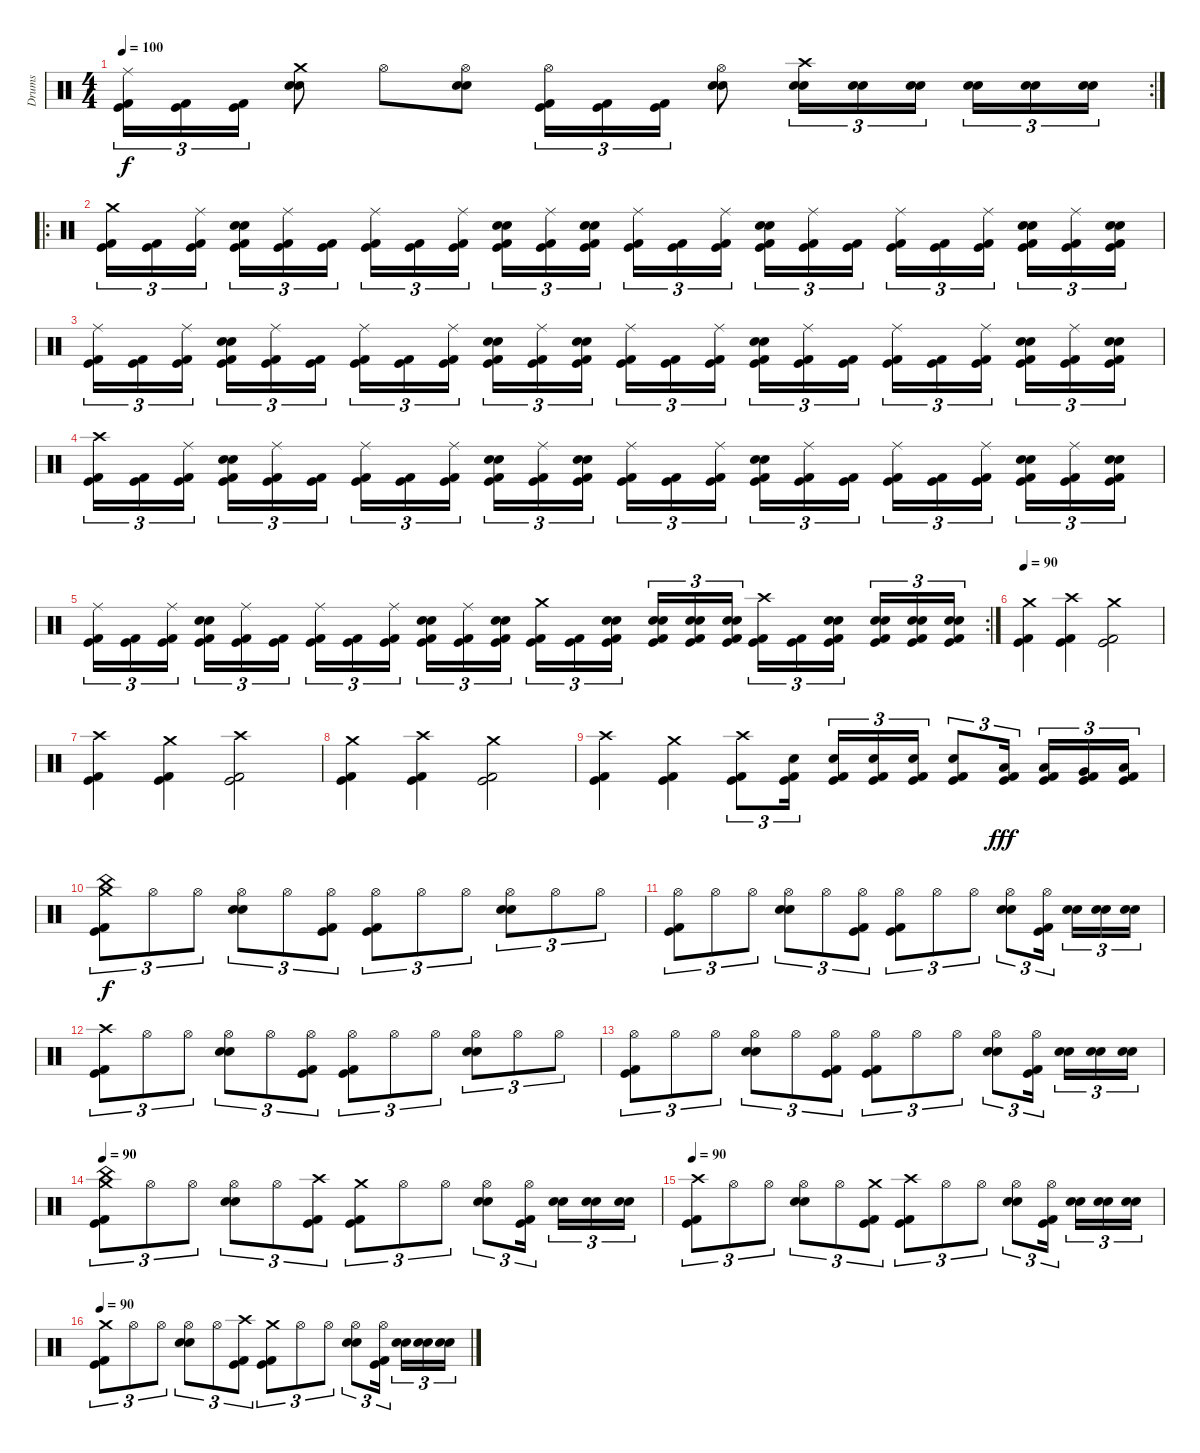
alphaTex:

\track ("Drums" "Drums") {instrument percussion}
\staff {score}
\articulation defaults
\rc 2
\ts (4 4)
\tempo 100
\clef neutral
\ks c
("Ride (middle)" "Kick (hit)" "Kick (hit) 2").16{tu (3 2) dy f} ("Kick (hit)" "Kick (hit) 2").16{tu (3 2)} ("Kick (hit)" "Kick (hit) 2").16{tu (3 2)} ("Crash medium (hit)" "Electric Snare (hit)" "Snare (hit) 2").8 "Hi-Hat (open)".8 ("Hi-Hat (open)" "Electric Snare (hit)" "Snare (hit) 2").8 ("Hi-Hat (open)" "Kick (hit)" "Kick (hit) 2").16{tu (3 2)} ("Kick (hit)" "Kick (hit) 2").16{tu (3 2)} ("Kick (hit)" "Kick (hit) 2").16{tu (3 2)} ("Hi-Hat (open)" "Electric Snare (hit)" "Snare (hit) 2").8 ("Crash high (hit)" "Electric Snare (hit)" "Snare (hit) 2").16{tu (3 2)} ("Electric Snare (hit)" "Snare (hit) 2").16{tu (3 2)} ("Electric Snare (hit)" "Snare (hit) 2").16{tu (3 2) beam splitsecondary} ("Electric Snare (hit)" "Snare (hit) 2").16{tu (3 2)} ("Electric Snare (hit)" "Snare (hit) 2").16{tu (3 2)} ("Electric Snare (hit)" "Snare (hit) 2").16{tu (3 2)} |
\ro
("Crash medium (hit)" "Kick (hit)" "Kick (hit) 2").16{tu (3 2)} ("Kick (hit)" "Kick (hit) 2").16{tu (3 2)} ("Ride (middle)" "Kick (hit)" "Kick (hit) 2").16{tu (3 2) beam splitsecondary} ("Electric Snare (hit)" "Snare (hit) 2" "Kick (hit)" "Kick (hit) 2").16{tu (3 2)} ("Ride (middle)" "Kick (hit)" "Kick (hit) 2").16{tu (3 2)} ("Kick (hit)" "Kick (hit) 2").16{tu (3 2)} ("Ride (middle)" "Kick (hit)" "Kick (hit) 2").16{tu (3 2)} ("Kick (hit)" "Kick (hit) 2").16{tu (3 2)} ("Ride (middle)" "Kick (hit)" "Kick (hit) 2").16{tu (3 2) beam splitsecondary} ("Electric Snare (hit)" "Snare (hit) 2" "Kick (hit)" "Kick (hit) 2").16{tu (3 2)} ("Ride (middle)" "Kick (hit)" "Kick (hit) 2").16{tu (3 2)} ("Electric Snare (hit)" "Snare (hit) 2" "Kick (hit)" "Kick (hit) 2").16{tu (3 2)} ("Ride (middle)" "Kick (hit)" "Kick (hit) 2").16{tu (3 2)} ("Kick (hit)" "Kick (hit) 2").16{tu (3 2)} ("Ride (middle)" "Kick (hit)" "Kick (hit) 2").16{tu (3 2) beam splitsecondary} ("Electric Snare (hit)" "Snare (hit) 2" "Kick (hit)" "Kick (hit) 2").16{tu (3 2)} ("Ride (middle)" "Kick (hit)" "Kick (hit) 2").16{tu (3 2)} ("Kick (hit)" "Kick (hit) 2").16{tu (3 2)} ("Ride (middle)" "Kick (hit)" "Kick (hit) 2").16{tu (3 2)} ("Kick (hit)" "Kick (hit) 2").16{tu (3 2)} ("Ride (middle)" "Kick (hit)" "Kick (hit) 2").16{tu (3 2) beam splitsecondary} ("Electric Snare (hit)" "Snare (hit) 2" "Kick (hit)" "Kick (hit) 2").16{tu (3 2)} ("Ride (middle)" "Kick (hit)" "Kick (hit) 2").16{tu (3 2)} ("Electric Snare (hit)" "Snare (hit) 2" "Kick (hit)" "Kick (hit) 2").16{tu (3 2)} |
("Ride (middle)" "Kick (hit)" "Kick (hit) 2").16{tu (3 2)} ("Kick (hit)" "Kick (hit) 2").16{tu (3 2)} ("Ride (middle)" "Kick (hit)" "Kick (hit) 2").16{tu (3 2) beam splitsecondary} ("Electric Snare (hit)" "Snare (hit) 2" "Kick (hit)" "Kick (hit) 2").16{tu (3 2)} ("Ride (middle)" "Kick (hit)" "Kick (hit) 2").16{tu (3 2)} ("Kick (hit)" "Kick (hit) 2").16{tu (3 2)} ("Ride (middle)" "Kick (hit)" "Kick (hit) 2").16{tu (3 2)} ("Kick (hit)" "Kick (hit) 2").16{tu (3 2)} ("Ride (middle)" "Kick (hit)" "Kick (hit) 2").16{tu (3 2) beam splitsecondary} ("Electric Snare (hit)" "Snare (hit) 2" "Kick (hit)" "Kick (hit) 2").16{tu (3 2)} ("Ride (middle)" "Kick (hit)" "Kick (hit) 2").16{tu (3 2)} ("Electric Snare (hit)" "Snare (hit) 2" "Kick (hit)" "Kick (hit) 2").16{tu (3 2)} ("Ride (middle)" "Kick (hit)" "Kick (hit) 2").16{tu (3 2)} ("Kick (hit)" "Kick (hit) 2").16{tu (3 2)} ("Ride (middle)" "Kick (hit)" "Kick (hit) 2").16{tu (3 2) beam splitsecondary} ("Electric Snare (hit)" "Snare (hit) 2" "Kick (hit)" "Kick (hit) 2").16{tu (3 2)} ("Ride (middle)" "Kick (hit)" "Kick (hit) 2").16{tu (3 2)} ("Kick (hit)" "Kick (hit) 2").16{tu (3 2)} ("Ride (middle)" "Kick (hit)" "Kick (hit) 2").16{tu (3 2)} ("Kick (hit)" "Kick (hit) 2").16{tu (3 2)} ("Ride (middle)" "Kick (hit)" "Kick (hit) 2").16{tu (3 2) beam splitsecondary} ("Electric Snare (hit)" "Snare (hit) 2" "Kick (hit)" "Kick (hit) 2").16{tu (3 2)} ("Ride (middle)" "Kick (hit)" "Kick (hit) 2").16{tu (3 2)} ("Electric Snare (hit)" "Snare (hit) 2" "Kick (hit)" "Kick (hit) 2").16{tu (3 2)} |
("Crash high (hit)" "Kick (hit)" "Kick (hit) 2").16{tu (3 2)} ("Kick (hit)" "Kick (hit) 2").16{tu (3 2)} ("Ride (middle)" "Kick (hit)" "Kick (hit) 2").16{tu (3 2) beam splitsecondary} ("Electric Snare (hit)" "Snare (hit) 2" "Kick (hit)" "Kick (hit) 2").16{tu (3 2)} ("Ride (middle)" "Kick (hit)" "Kick (hit) 2").16{tu (3 2)} ("Kick (hit)" "Kick (hit) 2").16{tu (3 2)} ("Ride (middle)" "Kick (hit)" "Kick (hit) 2").16{tu (3 2)} ("Kick (hit)" "Kick (hit) 2").16{tu (3 2)} ("Ride (middle)" "Kick (hit)" "Kick (hit) 2").16{tu (3 2) beam splitsecondary} ("Electric Snare (hit)" "Snare (hit) 2" "Kick (hit)" "Kick (hit) 2").16{tu (3 2)} ("Ride (middle)" "Kick (hit)" "Kick (hit) 2").16{tu (3 2)} ("Electric Snare (hit)" "Snare (hit) 2" "Kick (hit)" "Kick (hit) 2").16{tu (3 2)} ("Ride (middle)" "Kick (hit)" "Kick (hit) 2").16{tu (3 2)} ("Kick (hit)" "Kick (hit) 2").16{tu (3 2)} ("Ride (middle)" "Kick (hit)" "Kick (hit) 2").16{tu (3 2) beam splitsecondary} ("Electric Snare (hit)" "Snare (hit) 2" "Kick (hit)" "Kick (hit) 2").16{tu (3 2)} ("Ride (middle)" "Kick (hit)" "Kick (hit) 2").16{tu (3 2)} ("Kick (hit)" "Kick (hit) 2").16{tu (3 2)} ("Ride (middle)" "Kick (hit)" "Kick (hit) 2").16{tu (3 2)} ("Kick (hit)" "Kick (hit) 2").16{tu (3 2)} ("Ride (middle)" "Kick (hit)" "Kick (hit) 2").16{tu (3 2) beam splitsecondary} ("Electric Snare (hit)" "Snare (hit) 2" "Kick (hit)" "Kick (hit) 2").16{tu (3 2)} ("Ride (middle)" "Kick (hit)" "Kick (hit) 2").16{tu (3 2)} ("Electric Snare (hit)" "Snare (hit) 2" "Kick (hit)" "Kick (hit) 2").16{tu (3 2)} |
\rc 2
("Ride (middle)" "Kick (hit)" "Kick (hit) 2").16{tu (3 2)} ("Kick (hit)" "Kick (hit) 2").16{tu (3 2)} ("Ride (middle)" "Kick (hit)" "Kick (hit) 2").16{tu (3 2) beam splitsecondary} ("Electric Snare (hit)" "Snare (hit) 2" "Kick (hit)" "Kick (hit) 2").16{tu (3 2)} ("Ride (middle)" "Kick (hit)" "Kick (hit) 2").16{tu (3 2)} ("Kick (hit)" "Kick (hit) 2").16{tu (3 2)} ("Ride (middle)" "Kick (hit)" "Kick (hit) 2").16{tu (3 2)} ("Kick (hit)" "Kick (hit) 2").16{tu (3 2)} ("Ride (middle)" "Kick (hit)" "Kick (hit) 2").16{tu (3 2) beam splitsecondary} ("Electric Snare (hit)" "Snare (hit) 2" "Kick (hit)" "Kick (hit) 2").16{tu (3 2)} ("Ride (middle)" "Kick (hit)" "Kick (hit) 2").16{tu (3 2)} ("Electric Snare (hit)" "Snare (hit) 2" "Kick (hit)" "Kick (hit) 2").16{tu (3 2)} ("Crash medium (hit)" "Kick (hit)" "Kick (hit) 2").16{tu (3 2)} ("Kick (hit)" "Kick (hit) 2").16{tu (3 2)} ("Electric Snare (hit)" "Snare (hit) 2" "Kick (hit)" "Kick (hit) 2").16{tu (3 2) beam splitsecondary} ("Electric Snare (hit)" "Snare (hit) 2" "Kick (hit)" "Kick (hit) 2").16{tu (3 2)} ("Electric Snare (hit)" "Snare (hit) 2" "Kick (hit)" "Kick (hit) 2").16{tu (3 2)} ("Electric Snare (hit)" "Snare (hit) 2" "Kick (hit)" "Kick (hit) 2").16{tu (3 2)} ("Crash high (hit)" "Kick (hit)" "Kick (hit) 2").16{tu (3 2)} ("Kick (hit)" "Kick (hit) 2").16{tu (3 2)} ("Electric Snare (hit)" "Snare (hit) 2" "Kick (hit)" "Kick (hit) 2").16{tu (3 2) beam splitsecondary} ("Electric Snare (hit)" "Snare (hit) 2" "Kick (hit)" "Kick (hit) 2").16{tu (3 2)} ("Electric Snare (hit)" "Snare (hit) 2" "Kick (hit)" "Kick (hit) 2").16{tu (3 2)} ("Electric Snare (hit)" "Snare (hit) 2" "Kick (hit)" "Kick (hit) 2").16{tu (3 2)} |
\tempo 90
("Crash medium (hit)" "Kick (hit)" "Kick (hit) 2").4 ("Crash high (hit)" "Kick (hit)" "Kick (hit) 2").4 ("Crash medium (hit)" "Kick (hit)" "Kick (hit) 2").2 |
("Crash high (hit)" "Kick (hit)" "Kick (hit) 2").4 ("Crash medium (hit)" "Kick (hit)" "Kick (hit) 2").4 ("Crash high (hit)" "Kick (hit)" "Kick (hit) 2").2 |
("Crash medium (hit)" "Kick (hit)" "Kick (hit) 2").4 ("Crash high (hit)" "Kick (hit)" "Kick (hit) 2").4 ("Crash medium (hit)" "Kick (hit)" "Kick (hit) 2").2 |
("Crash high (hit)" "Kick (hit)" "Kick (hit) 2").4 ("Crash medium (hit)" "Kick (hit)" "Kick (hit) 2").4 ("Crash high (hit)" "Kick (hit)" "Kick (hit) 2").8{tu (3 2)} ("Electric Snare (hit)" "Kick (hit) 2" "Kick (hit)").16{tu (3 2) beam splitsecondary} ("Electric Snare (hit)" "Kick (hit) 2" "Kick (hit)").16{tu (3 2)} ("Electric Snare (hit)" "Kick (hit) 2" "Kick (hit)").16{tu (3 2)} ("Electric Snare (hit)" "Kick (hit) 2" "Kick (hit)").16{tu (3 2)} ("Electric Snare (hit)" "Kick (hit) 2" "Kick (hit)").8{tu (3 2)} ("Low Tom (hit)" "Kick (hit) 2" "Kick (hit)").16{tu (3 2) dy fff beam splitsecondary} ("Low Tom (hit)" "Kick (hit) 2" "Kick (hit)").16{tu (3 2)} ("Very Low Tom (hit)" "Kick (hit) 2" "Kick (hit)").16{tu (3 2)} ("Low Floor Tom (hit)" "Kick (hit) 2" "Kick (hit)").16{tu (3 2)} |
("China (hit)" "Crash medium (hit)" "Kick (hit)" "Kick (hit) 2").8{tu (3 2) dy f} "Hi-Hat (open)".8{tu (3 2)} "Hi-Hat (open)".8{tu (3 2)} ("Hi-Hat (open)" "Electric Snare (hit)" "Snare (hit) 2").8{tu (3 2)} "Hi-Hat (open)".8{tu (3 2)} ("Hi-Hat (open)" "Kick (hit)" "Kick (hit) 2").8{tu (3 2)} ("Hi-Hat (open)" "Kick (hit)" "Kick (hit) 2").8{tu (3 2)} "Hi-Hat (open)".8{tu (3 2)} "Hi-Hat (open)".8{tu (3 2)} ("Hi-Hat (open)" "Electric Snare (hit)" "Snare (hit) 2").8{tu (3 2)} "Hi-Hat (open)".8{tu (3 2)} "Hi-Hat (open)".8{tu (3 2)} |
("Hi-Hat (open)" "Kick (hit)" "Kick (hit) 2").8{tu (3 2)} "Hi-Hat (open)".8{tu (3 2)} "Hi-Hat (open)".8{tu (3 2)} ("Hi-Hat (open)" "Electric Snare (hit)" "Snare (hit) 2").8{tu (3 2)} "Hi-Hat (open)".8{tu (3 2)} ("Hi-Hat (open)" "Kick (hit)" "Kick (hit) 2").8{tu (3 2)} ("Hi-Hat (open)" "Kick (hit)" "Kick (hit) 2").8{tu (3 2)} "Hi-Hat (open)".8{tu (3 2)} "Hi-Hat (open)".8{tu (3 2)} ("Hi-Hat (open)" "Electric Snare (hit)" "Snare (hit) 2").8{tu (3 2)} ("Hi-Hat (open)" "Kick (hit)" "Kick (hit) 2").16{tu (3 2) beam splitsecondary} ("Snare (hit) 2" "Electric Snare (hit)").16{tu (3 2)} ("Snare (hit) 2" "Electric Snare (hit)").16{tu (3 2)} ("Snare (hit) 2" "Electric Snare (hit)").16{tu (3 2)} |
("Crash high (hit)" "Kick (hit)" "Kick (hit) 2").8{tu (3 2)} "Hi-Hat (open)".8{tu (3 2)} "Hi-Hat (open)".8{tu (3 2)} ("Hi-Hat (open)" "Electric Snare (hit)" "Snare (hit) 2").8{tu (3 2)} "Hi-Hat (open)".8{tu (3 2)} ("Hi-Hat (open)" "Kick (hit)" "Kick (hit) 2").8{tu (3 2)} ("Hi-Hat (open)" "Kick (hit)" "Kick (hit) 2").8{tu (3 2)} "Hi-Hat (open)".8{tu (3 2)} "Hi-Hat (open)".8{tu (3 2)} ("Hi-Hat (open)" "Electric Snare (hit)" "Snare (hit) 2").8{tu (3 2)} "Hi-Hat (open)".8{tu (3 2)} "Hi-Hat (open)".8{tu (3 2)} |
("Hi-Hat (open)" "Kick (hit)" "Kick (hit) 2").8{tu (3 2)} "Hi-Hat (open)".8{tu (3 2)} "Hi-Hat (open)".8{tu (3 2)} ("Hi-Hat (open)" "Electric Snare (hit)" "Snare (hit) 2").8{tu (3 2)} "Hi-Hat (open)".8{tu (3 2)} ("Hi-Hat (open)" "Kick (hit)" "Kick (hit) 2").8{tu (3 2)} ("Hi-Hat (open)" "Kick (hit)" "Kick (hit) 2").8{tu (3 2)} "Hi-Hat (open)".8{tu (3 2)} "Hi-Hat (open)".8{tu (3 2)} ("Hi-Hat (open)" "Electric Snare (hit)" "Snare (hit) 2").8{tu (3 2)} ("Hi-Hat (open)" "Kick (hit)" "Kick (hit) 2").16{tu (3 2) beam splitsecondary} ("Snare (hit) 2" "Electric Snare (hit)").16{tu (3 2)} ("Snare (hit) 2" "Electric Snare (hit)").16{tu (3 2)} ("Snare (hit) 2" "Electric Snare (hit)").16{tu (3 2)} |
\tempo 90
("China (hit)" "Crash medium (hit)" "Kick (hit)" "Kick (hit) 2").8{tu (3 2)} "Hi-Hat (open)".8{tu (3 2)} "Hi-Hat (open)".8{tu (3 2)} ("Hi-Hat (open)" "Electric Snare (hit)" "Snare (hit) 2").8{tu (3 2)} "Hi-Hat (open)".8{tu (3 2)} ("Crash high (hit)" "Kick (hit)" "Kick (hit) 2").8{tu (3 2)} ("Crash medium (hit)" "Kick (hit)" "Kick (hit) 2").8{tu (3 2)} "Hi-Hat (open)".8{tu (3 2)} "Hi-Hat (open)".8{tu (3 2)} ("Hi-Hat (open)" "Electric Snare (hit)" "Snare (hit) 2").8{tu (3 2)} ("Hi-Hat (open)" "Kick (hit)" "Kick (hit) 2").16{tu (3 2) beam splitsecondary} ("Snare (hit) 2" "Electric Snare (hit)").16{tu (3 2)} ("Snare (hit) 2" "Electric Snare (hit)").16{tu (3 2)} ("Snare (hit) 2" "Electric Snare (hit)").16{tu (3 2)} |
\tempo 90
("Crash high (hit)" "Kick (hit)" "Kick (hit) 2").8{tu (3 2)} "Hi-Hat (open)".8{tu (3 2)} "Hi-Hat (open)".8{tu (3 2)} ("Hi-Hat (open)" "Electric Snare (hit)" "Snare (hit) 2").8{tu (3 2)} "Hi-Hat (open)".8{tu (3 2)} ("Crash medium (hit)" "Kick (hit)" "Kick (hit) 2").8{tu (3 2)} ("Crash high (hit)" "Kick (hit)" "Kick (hit) 2").8{tu (3 2)} "Hi-Hat (open)".8{tu (3 2)} "Hi-Hat (open)".8{tu (3 2)} ("Hi-Hat (open)" "Electric Snare (hit)" "Snare (hit) 2").8{tu (3 2)} ("Hi-Hat (open)" "Kick (hit)" "Kick (hit) 2").16{tu (3 2) beam splitsecondary} ("Snare (hit) 2" "Electric Snare (hit)").16{tu (3 2)} ("Snare (hit) 2" "Electric Snare (hit)").16{tu (3 2)} ("Snare (hit) 2" "Electric Snare (hit)").16{tu (3 2)} |
\tempo 90
("Crash medium (hit)" "Kick (hit)" "Kick (hit) 2").8{tu (3 2)} "Hi-Hat (open)".8{tu (3 2)} "Hi-Hat (open)".8{tu (3 2)} ("Hi-Hat (open)" "Electric Snare (hit)" "Snare (hit) 2").8{tu (3 2)} "Hi-Hat (open)".8{tu (3 2)} ("Crash high (hit)" "Kick (hit)" "Kick (hit) 2").8{tu (3 2)} ("Crash medium (hit)" "Kick (hit)" "Kick (hit) 2").8{tu (3 2)} "Hi-Hat (open)".8{tu (3 2)} "Hi-Hat (open)".8{tu (3 2)} ("Hi-Hat (open)" "Electric Snare (hit)" "Snare (hit) 2").8{tu (3 2)} ("Hi-Hat (open)" "Kick (hit)" "Kick (hit) 2").16{tu (3 2) beam splitsecondary} ("Snare (hit) 2" "Electric Snare (hit)").16{tu (3 2)} ("Snare (hit) 2" "Electric Snare (hit)").16{tu (3 2)} ("Snare (hit) 2" "Electric Snare (hit)").16{tu (3 2)}
